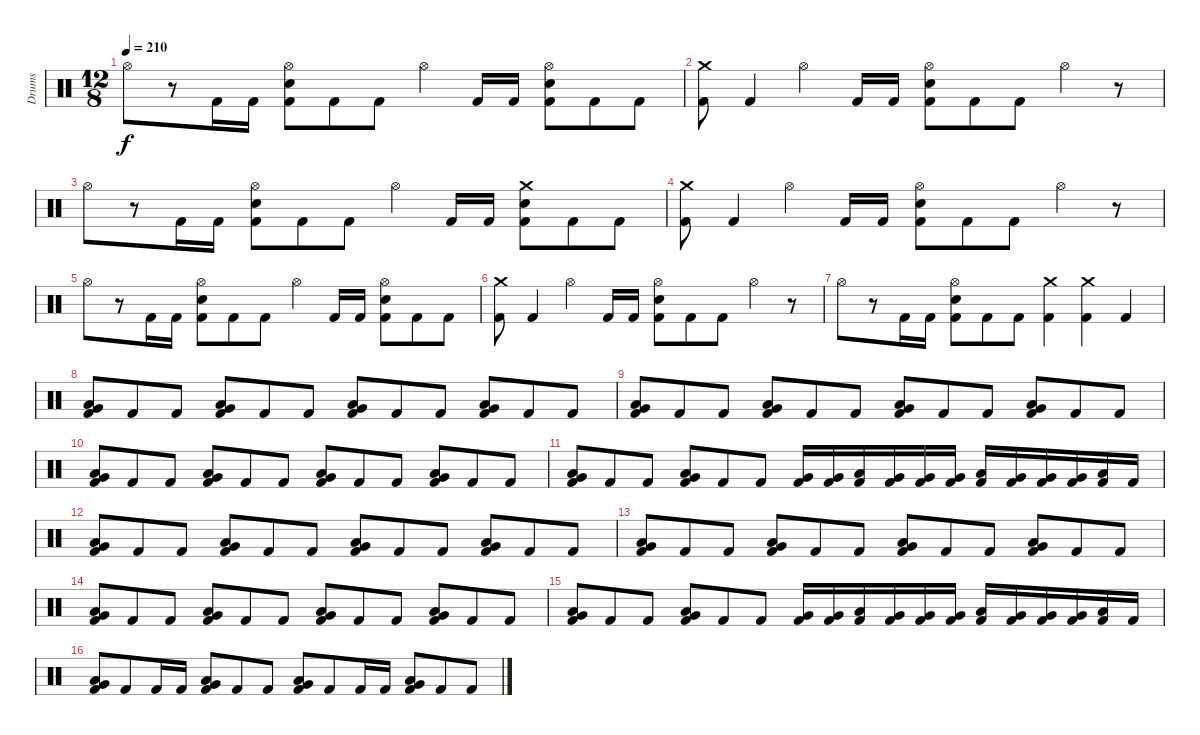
\track ("Drums" "Drums") {instrument percussion}
\staff {score}
\articulation defaults
\ts (12 8)
\tempo 210
\clef neutral
\ks c "Hi-Hat (open)".8{dy f}
r.8 "Kick (hit) 2".16 "Kick (hit) 2".16 ("Hi-Hat (open)" "Snare (hit) 2" "Kick (hit) 2").8 "Kick (hit) 2".8 "Kick (hit) 2".8 "Hi-Hat (open)".4 "Kick (hit) 2".16 "Kick (hit) 2".16 ("Hi-Hat (open)" "Snare (hit) 2" "Kick (hit) 2").8 "Kick (hit) 2".8 "Kick (hit) 2".8 |
("Crash medium (hit)" "Kick (hit) 2").8 "Kick (hit) 2".4 "Hi-Hat (open)".4 "Kick (hit) 2".16 "Kick (hit) 2".16 ("Hi-Hat (open)" "Snare (hit) 2" "Kick (hit) 2").8 "Kick (hit) 2".8 "Kick (hit) 2".8 "Hi-Hat (open)".4 r.8 |
"Hi-Hat (open)".8 r.8 "Kick (hit) 2".16 "Kick (hit) 2".16 ("Hi-Hat (open)" "Snare (hit) 2" "Kick (hit) 2").8 "Kick (hit) 2".8 "Kick (hit) 2".8 "Hi-Hat (open)".4 "Kick (hit) 2".16 "Kick (hit) 2".16 ("Crash medium (hit)" "Snare (hit) 2" "Kick (hit) 2").8 "Kick (hit) 2".8 "Kick (hit) 2".8 |
("Crash medium (hit)" "Kick (hit) 2").8 "Kick (hit) 2".4 "Hi-Hat (open)".4 "Kick (hit) 2".16 "Kick (hit) 2".16 ("Hi-Hat (open)" "Snare (hit) 2" "Kick (hit) 2").8 "Kick (hit) 2".8 "Kick (hit) 2".8 "Hi-Hat (open)".4 r.8 |
"Hi-Hat (open)".8 r.8 "Kick (hit) 2".16 "Kick (hit) 2".16 ("Hi-Hat (open)" "Snare (hit) 2" "Kick (hit) 2").8 "Kick (hit) 2".8 "Kick (hit) 2".8 "Hi-Hat (open)".4 "Kick (hit) 2".16 "Kick (hit) 2".16 ("Hi-Hat (open)" "Snare (hit) 2" "Kick (hit) 2").8 "Kick (hit) 2".8 "Kick (hit) 2".8 |
("Crash medium (hit)" "Kick (hit) 2").8 "Kick (hit) 2".4 "Hi-Hat (open)".4 "Kick (hit) 2".16 "Kick (hit) 2".16 ("Hi-Hat (open)" "Snare (hit) 2" "Kick (hit) 2").8 "Kick (hit) 2".8 "Kick (hit) 2".8 "Hi-Hat (open)".4 r.8 |
"Hi-Hat (open)".8 r.8 "Kick (hit) 2".16 "Kick (hit) 2".16 ("Hi-Hat (open)" "Snare (hit) 2" "Kick (hit) 2").8 "Kick (hit) 2".8 "Kick (hit) 2".8 ("Crash medium (hit)" "Kick (hit) 2").4 ("Crash medium (hit)" "Kick (hit) 2").4 "Kick (hit) 2".4 |
("Very Low Tom (hit)" "Low Tom (hit)" "Kick (hit) 2").8 "Kick (hit) 2".8 "Kick (hit) 2".8 ("Very Low Tom (hit)" "Low Tom (hit)" "Kick (hit) 2").8 "Kick (hit) 2".8 "Kick (hit) 2".8 ("Very Low Tom (hit)" "Low Tom (hit)" "Kick (hit) 2").8 "Kick (hit) 2".8 "Kick (hit) 2".8 ("Very Low Tom (hit)" "Low Tom (hit)" "Kick (hit) 2").8 "Kick (hit) 2".8 "Kick (hit) 2".8 |
("Very Low Tom (hit)" "Low Tom (hit)" "Kick (hit) 2").8 "Kick (hit) 2".8 "Kick (hit) 2".8 ("Very Low Tom (hit)" "Low Tom (hit)" "Kick (hit) 2").8 "Kick (hit) 2".8 "Kick (hit) 2".8 ("Very Low Tom (hit)" "Low Tom (hit)" "Kick (hit) 2").8 "Kick (hit) 2".8 "Kick (hit) 2".8 ("Very Low Tom (hit)" "Low Tom (hit)" "Kick (hit) 2").8 "Kick (hit) 2".8 "Kick (hit) 2".8 |
("Very Low Tom (hit)" "Low Tom (hit)" "Kick (hit) 2").8 "Kick (hit) 2".8 "Kick (hit) 2".8 ("Very Low Tom (hit)" "Low Tom (hit)" "Kick (hit) 2").8 "Kick (hit) 2".8 "Kick (hit) 2".8 ("Very Low Tom (hit)" "Low Tom (hit)" "Kick (hit) 2").8 "Kick (hit) 2".8 "Kick (hit) 2".8 ("Very Low Tom (hit)" "Low Tom (hit)" "Kick (hit) 2").8 "Kick (hit) 2".8 "Kick (hit) 2".8 |
("Very Low Tom (hit)" "Low Tom (hit)" "Kick (hit) 2").8 "Kick (hit) 2".8 "Kick (hit) 2".8 ("Very Low Tom (hit)" "Low Tom (hit)" "Kick (hit) 2").8 "Kick (hit) 2".8 "Kick (hit) 2".8 ("Very Low Tom (hit)" "Kick (hit) 2").16 ("Very Low Tom (hit)" "Kick (hit) 2").16 ("Low Tom (hit)" "Kick (hit) 2").16 ("Very Low Tom (hit)" "Kick (hit) 2").16 ("Very Low Tom (hit)" "Kick (hit) 2").16 ("Very Low Tom (hit)" "Kick (hit) 2").16 ("Low Tom (hit)" "Kick (hit) 2").16 ("Very Low Tom (hit)" "Kick (hit) 2").16 ("Very Low Tom (hit)" "Kick (hit) 2").16 ("Very Low Tom (hit)" "Kick (hit) 2").16 ("Low Tom (hit)" "Kick (hit) 2").16 "Kick (hit) 2".16 |
("Very Low Tom (hit)" "Low Tom (hit)" "Kick (hit) 2").8 "Kick (hit) 2".8 "Kick (hit) 2".8 ("Very Low Tom (hit)" "Low Tom (hit)" "Kick (hit) 2").8 "Kick (hit) 2".8 "Kick (hit) 2".8 ("Very Low Tom (hit)" "Low Tom (hit)" "Kick (hit) 2").8 "Kick (hit) 2".8 "Kick (hit) 2".8 ("Very Low Tom (hit)" "Low Tom (hit)" "Kick (hit) 2").8 "Kick (hit) 2".8 "Kick (hit) 2".8 |
("Very Low Tom (hit)" "Low Tom (hit)" "Kick (hit) 2").8 "Kick (hit) 2".8 "Kick (hit) 2".8 ("Very Low Tom (hit)" "Low Tom (hit)" "Kick (hit) 2").8 "Kick (hit) 2".8 "Kick (hit) 2".8 ("Very Low Tom (hit)" "Low Tom (hit)" "Kick (hit) 2").8 "Kick (hit) 2".8 "Kick (hit) 2".8 ("Very Low Tom (hit)" "Low Tom (hit)" "Kick (hit) 2").8 "Kick (hit) 2".8 "Kick (hit) 2".8 |
("Very Low Tom (hit)" "Low Tom (hit)" "Kick (hit) 2").8 "Kick (hit) 2".8 "Kick (hit) 2".8 ("Very Low Tom (hit)" "Low Tom (hit)" "Kick (hit) 2").8 "Kick (hit) 2".8 "Kick (hit) 2".8 ("Very Low Tom (hit)" "Low Tom (hit)" "Kick (hit) 2").8 "Kick (hit) 2".8 "Kick (hit) 2".8 ("Very Low Tom (hit)" "Low Tom (hit)" "Kick (hit) 2").8 "Kick (hit) 2".8 "Kick (hit) 2".8 |
("Very Low Tom (hit)" "Low Tom (hit)" "Kick (hit) 2").8 "Kick (hit) 2".8 "Kick (hit) 2".8 ("Very Low Tom (hit)" "Low Tom (hit)" "Kick (hit) 2").8 "Kick (hit) 2".8 "Kick (hit) 2".8 ("Very Low Tom (hit)" "Kick (hit) 2").16 ("Very Low Tom (hit)" "Kick (hit) 2").16 ("Low Tom (hit)" "Kick (hit) 2").16 ("Very Low Tom (hit)" "Kick (hit) 2").16 ("Very Low Tom (hit)" "Kick (hit) 2").16 ("Very Low Tom (hit)" "Kick (hit) 2").16 ("Low Tom (hit)" "Kick (hit) 2").16 ("Very Low Tom (hit)" "Kick (hit) 2").16 ("Very Low Tom (hit)" "Kick (hit) 2").16 ("Very Low Tom (hit)" "Kick (hit) 2").16 ("Low Tom (hit)" "Kick (hit) 2").16 "Kick (hit) 2".16 |
("Very Low Tom (hit)" "Low Tom (hit)" "Kick (hit) 2").8 "Kick (hit) 2".8 "Kick (hit) 2".16 "Kick (hit) 2".16 ("Very Low Tom (hit)" "Low Tom (hit)" "Kick (hit) 2").8 "Kick (hit) 2".8 "Kick (hit) 2".8 ("Very Low Tom (hit)" "Low Tom (hit)" "Kick (hit) 2").8 "Kick (hit) 2".8 "Kick (hit) 2".16 "Kick (hit) 2".16 ("Very Low Tom (hit)" "Low Tom (hit)" "Kick (hit) 2").8 "Kick (hit) 2".8 "Kick (hit) 2".8
